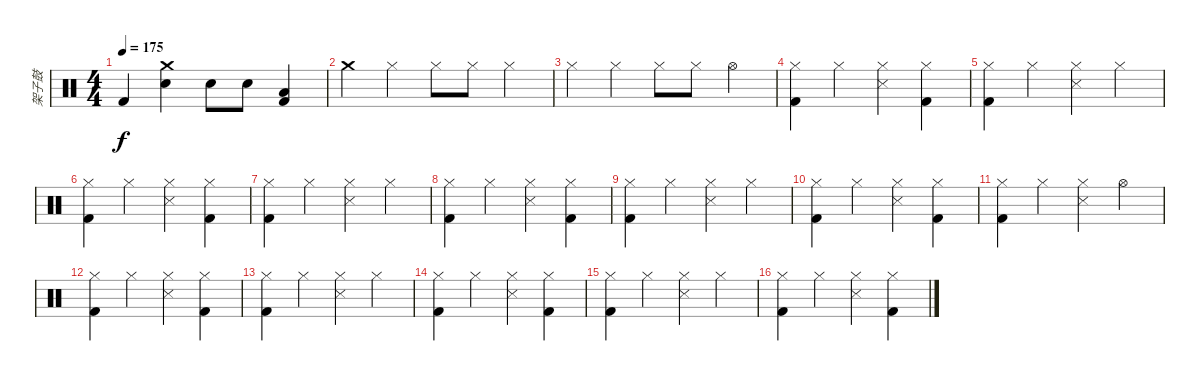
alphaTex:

\track ("架子鼓" "架子鼓") {instrument percussion}
\staff {score}
\articulation defaults
\ts (4 4)
\tempo 175
\clef neutral
\ks c "Kick (hit) 2".4{dy f}
("Crash medium (hit)" "Electric Snare (hit)").4 "Electric Snare (hit)".8 "Electric Snare (hit)".8 ("Low Tom (hit)" "Kick (hit) 2").4 |
"Crash medium (hit)".4 "Hi-Hat (closed)".4 "Hi-Hat (closed)".8 "Hi-Hat (closed)".8 "Hi-Hat (closed)".4 |
"Hi-Hat (closed)".4 "Hi-Hat (closed)".4 "Hi-Hat (closed)".8 "Hi-Hat (closed)".8 "Hi-Hat (open)".4 |
("Hi-Hat (closed)" "Kick (hit) 2").4 "Hi-Hat (closed)".4 ("Hi-Hat (closed)" "Snare (side stick) 3").4 ("Hi-Hat (closed)" "Kick (hit) 2").4 |
("Hi-Hat (closed)" "Kick (hit) 2").4 "Hi-Hat (closed)".4 ("Hi-Hat (closed)" "Snare (side stick) 3").4 "Hi-Hat (closed)".4 |
("Hi-Hat (closed)" "Kick (hit) 2").4 "Hi-Hat (closed)".4 ("Hi-Hat (closed)" "Snare (side stick) 3").4 ("Hi-Hat (closed)" "Kick (hit) 2").4 |
("Hi-Hat (closed)" "Kick (hit) 2").4 "Hi-Hat (closed)".4 ("Hi-Hat (closed)" "Snare (side stick) 3").4 "Hi-Hat (closed)".4 |
("Hi-Hat (closed)" "Kick (hit) 2").4 "Hi-Hat (closed)".4 ("Hi-Hat (closed)" "Snare (side stick) 3").4 ("Hi-Hat (closed)" "Kick (hit) 2").4 |
("Hi-Hat (closed)" "Kick (hit) 2").4 "Hi-Hat (closed)".4 ("Hi-Hat (closed)" "Snare (side stick) 3").4 "Hi-Hat (closed)".4 |
("Hi-Hat (closed)" "Kick (hit) 2").4 "Hi-Hat (closed)".4 ("Hi-Hat (closed)" "Snare (side stick) 3").4 ("Hi-Hat (closed)" "Kick (hit) 2").4 |
("Hi-Hat (closed)" "Kick (hit) 2").4 "Hi-Hat (closed)".4 ("Hi-Hat (closed)" "Snare (side stick) 3").4 "Hi-Hat (open)".4 |
("Hi-Hat (closed)" "Kick (hit) 2").4 "Hi-Hat (closed)".4 ("Hi-Hat (closed)" "Snare (side stick) 3").4 ("Hi-Hat (closed)" "Kick (hit) 2").4 |
("Hi-Hat (closed)" "Kick (hit) 2").4 "Hi-Hat (closed)".4 ("Hi-Hat (closed)" "Snare (side stick) 3").4 "Hi-Hat (closed)".4 |
("Hi-Hat (closed)" "Kick (hit) 2").4 "Hi-Hat (closed)".4 ("Hi-Hat (closed)" "Snare (side stick) 3").4 ("Hi-Hat (closed)" "Kick (hit) 2").4 |
("Hi-Hat (closed)" "Kick (hit) 2").4 "Hi-Hat (closed)".4 ("Hi-Hat (closed)" "Snare (side stick) 3").4 "Hi-Hat (closed)".4 |
("Hi-Hat (closed)" "Kick (hit) 2").4 "Hi-Hat (closed)".4 ("Hi-Hat (closed)" "Snare (side stick) 3").4 ("Hi-Hat (closed)" "Kick (hit) 2").4
